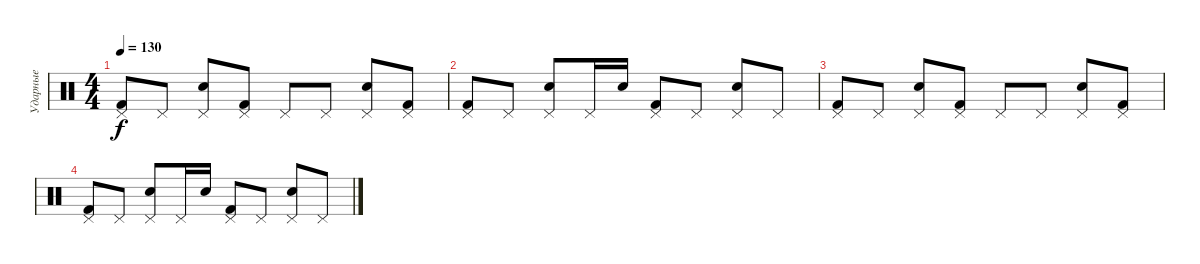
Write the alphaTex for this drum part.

\track ("Ударные" "Ударные") {instrument percussion}
\staff {score}
\articulation defaults
\ts (4 4)
\tempo 130
\clef neutral
\ks c
("Pedal Hi-Hat (hit)" "Kick (hit) 2").8{dy f} "Pedal Hi-Hat (hit)".8 ("Pedal Hi-Hat (hit)" "Snare (hit) 2").8 ("Pedal Hi-Hat (hit)" "Kick (hit) 2").8 "Pedal Hi-Hat (hit)".8 "Pedal Hi-Hat (hit)".8 ("Pedal Hi-Hat (hit)" "Snare (hit) 2").8 ("Pedal Hi-Hat (hit)" "Kick (hit) 2").8 |
("Pedal Hi-Hat (hit)" "Kick (hit) 2").8 "Pedal Hi-Hat (hit)".8 ("Pedal Hi-Hat (hit)" "Snare (hit) 2").8 "Pedal Hi-Hat (hit)".16 "Snare (hit) 2".16 ("Pedal Hi-Hat (hit)" "Kick (hit) 2").8 "Pedal Hi-Hat (hit)".8 ("Pedal Hi-Hat (hit)" "Snare (hit) 2").8 "Pedal Hi-Hat (hit)".8 |
("Pedal Hi-Hat (hit)" "Kick (hit) 2").8 "Pedal Hi-Hat (hit)".8 ("Pedal Hi-Hat (hit)" "Snare (hit) 2").8 ("Pedal Hi-Hat (hit)" "Kick (hit) 2").8 "Pedal Hi-Hat (hit)".8 "Pedal Hi-Hat (hit)".8 ("Pedal Hi-Hat (hit)" "Snare (hit) 2").8 ("Pedal Hi-Hat (hit)" "Kick (hit) 2").8 |
("Pedal Hi-Hat (hit)" "Kick (hit) 2").8 "Pedal Hi-Hat (hit)".8 ("Pedal Hi-Hat (hit)" "Snare (hit) 2").8 "Pedal Hi-Hat (hit)".16 "Snare (hit) 2".16 ("Pedal Hi-Hat (hit)" "Kick (hit) 2").8 "Pedal Hi-Hat (hit)".8 ("Pedal Hi-Hat (hit)" "Snare (hit) 2").8 "Pedal Hi-Hat (hit)".8
